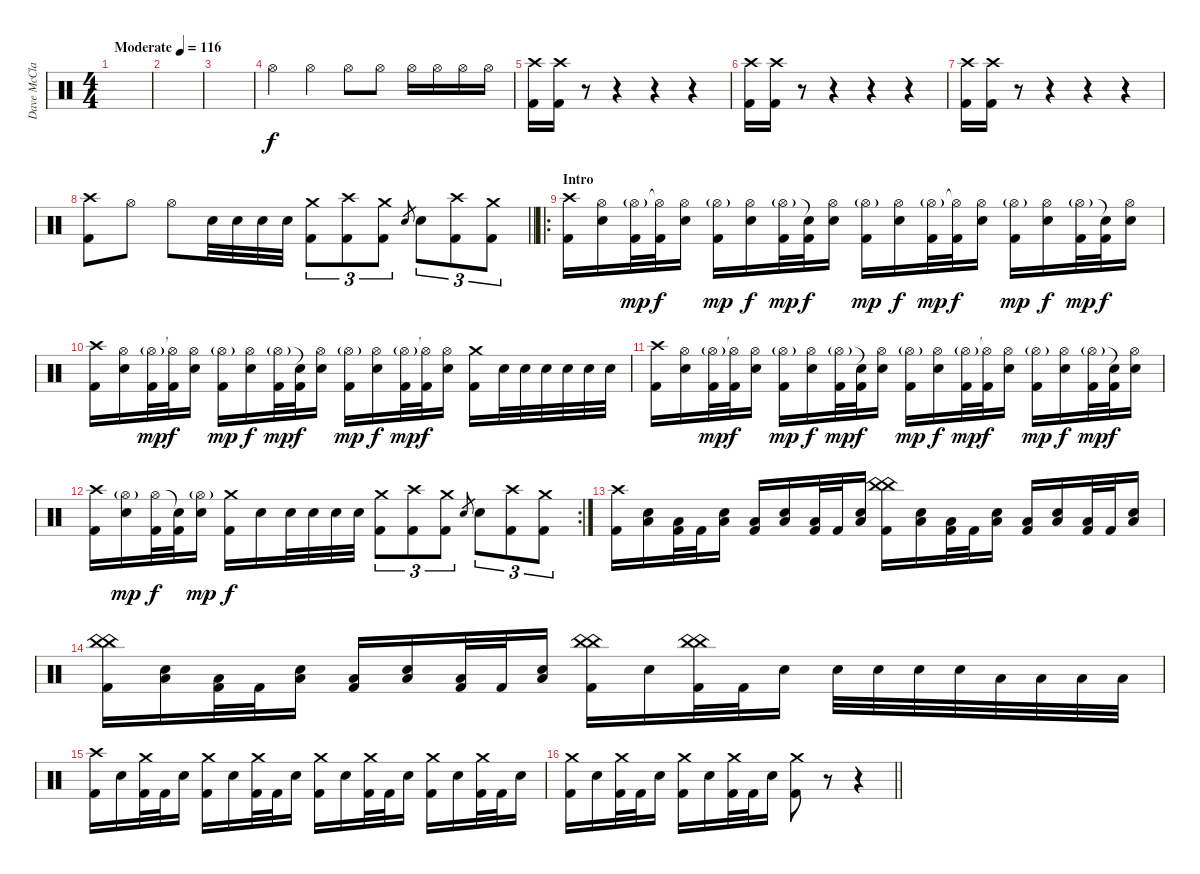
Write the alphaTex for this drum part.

\track ("Dave McClain (drums)" "Dave McCla") {instrument percussion}
\staff {score}
\articulation defaults
\ts (4 4)
\tempo (116 "Moderate")
\clef neutral
\ks c
|
|
|
"Hi-Hat (open)".4 "Hi-Hat (open)".4 "Hi-Hat (open)".8 "Hi-Hat (open)".8 "Hi-Hat (open)".16 "Hi-Hat (open)".16 "Hi-Hat (open)".16 "Hi-Hat (open)".16 |
("Crash high (hit)" "Kick (hit) 2").16 ("Crash high (hit)" "Kick (hit) 2").16 r.8 r.4 r.4 r.4 |
("Crash high (hit)" "Kick (hit) 2").16 ("Crash high (hit)" "Kick (hit) 2").16 r.8 r.4 r.4 r.4 |
("Crash high (hit)" "Kick (hit) 2").16 ("Crash high (hit)" "Kick (hit) 2").16 r.8 r.4 r.4 r.4 |
\barLineRight lightlight
("Crash high (hit)" "Kick (hit) 2").8 "Hi-Hat (open)".8 "Hi-Hat (open)".8 "Electric Snare (hit)".32 "Electric Snare (hit)".32 "Electric Snare (hit)".32 "Electric Snare (hit)".32 ("Crash medium (hit)" "Kick (hit) 2").8{tu (3 2)} ("Crash high (hit)" "Kick (hit) 2").8{tu (3 2)} ("Crash medium (hit)" "Kick (hit) 2").8{tu (3 2)} "Electric Snare (hit)".8{gr} "Electric Snare (hit)".8{tu (3 2)} ("Crash high (hit)" "Kick (hit) 2").8{tu (3 2)} ("Crash medium (hit)" "Kick (hit) 2").8{tu (3 2)} |
\ro
\section ("" "Intro")
("Crash high (hit)" "Kick (hit) 2").16 ("Hi-Hat (open)" "Electric Snare (hit)").16 ("Hi-Hat (open)"{g} "Kick (hit) 2").32{dy mp} ("Hi-Hat (open)"{t} "Kick (hit) 2").32{dy f} ("Hi-Hat (open)" "Electric Snare (hit)").16 ("Hi-Hat (open)"{g} "Kick (hit) 2").16{dy mp} ("Hi-Hat (open)" "Electric Snare (hit)").16{dy f} ("Hi-Hat (open)"{g} "Kick (hit) 2").32{dy mp} ("Snare (hit)"{t} "Kick (hit) 2").32{dy f} ("Hi-Hat (open)" "Electric Snare (hit)").16 ("Hi-Hat (open)"{g} "Kick (hit) 2").16{dy mp} ("Hi-Hat (open)" "Electric Snare (hit)").16{dy f} ("Hi-Hat (open)"{g} "Kick (hit) 2").32{dy mp} ("Hi-Hat (open)"{t} "Kick (hit) 2").32{dy f} ("Hi-Hat (open)" "Electric Snare (hit)").16 ("Hi-Hat (open)"{g} "Kick (hit) 2").16{dy mp} ("Hi-Hat (open)" "Electric Snare (hit)").16{dy f} ("Hi-Hat (open)"{g} "Kick (hit) 2").32{dy mp} ("Snare (hit)"{t} "Kick (hit) 2").32{dy f} ("Hi-Hat (open)" "Electric Snare (hit)").16 |
("Crash high (hit)" "Kick (hit) 2").16 ("Hi-Hat (open)" "Electric Snare (hit)").16 ("Hi-Hat (open)"{g} "Kick (hit) 2").32{dy mp} ("Hi-Hat (open)"{t} "Kick (hit) 2").32{dy f} ("Hi-Hat (open)" "Electric Snare (hit)").16 ("Hi-Hat (open)"{g} "Kick (hit) 2").16{dy mp} ("Hi-Hat (open)" "Electric Snare (hit)").16{dy f} ("Hi-Hat (open)"{g} "Kick (hit) 2").32{dy mp} ("Snare (hit)"{t} "Kick (hit) 2").32{dy f} ("Hi-Hat (open)" "Electric Snare (hit)").16 ("Hi-Hat (open)"{g} "Kick (hit) 2").16{dy mp} ("Hi-Hat (open)" "Electric Snare (hit)").16{dy f} ("Hi-Hat (open)"{g} "Kick (hit) 2").32{dy mp} ("Hi-Hat (open)"{t} "Kick (hit) 2").32{dy f} ("Hi-Hat (open)" "Electric Snare (hit)").16 ("Crash medium (hit)" "Kick (hit) 2").16 "Electric Snare (hit)".32 "Electric Snare (hit)".32 "Electric Snare (hit)".32 "Electric Snare (hit)".32 "Electric Snare (hit)".32 "Electric Snare (hit)".32 |
("Crash high (hit)" "Kick (hit) 2").16 ("Hi-Hat (open)" "Electric Snare (hit)").16 ("Hi-Hat (open)"{g} "Kick (hit) 2").32{dy mp} ("Hi-Hat (open)"{t} "Kick (hit) 2").32{dy f} ("Hi-Hat (open)" "Electric Snare (hit)").16 ("Hi-Hat (open)"{g} "Kick (hit) 2").16{dy mp} ("Hi-Hat (open)" "Electric Snare (hit)").16{dy f} ("Hi-Hat (open)"{g} "Kick (hit) 2").32{dy mp} ("Snare (hit)"{t} "Kick (hit) 2").32{dy f} ("Hi-Hat (open)" "Electric Snare (hit)").16 ("Hi-Hat (open)"{g} "Kick (hit) 2").16{dy mp} ("Hi-Hat (open)" "Electric Snare (hit)").16{dy f} ("Hi-Hat (open)"{g} "Kick (hit) 2").32{dy mp} ("Hi-Hat (open)"{t} "Kick (hit) 2").32{dy f} ("Hi-Hat (open)" "Electric Snare (hit)").16 ("Hi-Hat (open)"{g} "Kick (hit) 2").16{dy mp} ("Hi-Hat (open)" "Electric Snare (hit)").16{dy f} ("Hi-Hat (open)"{g} "Kick (hit) 2").32{dy mp} ("Snare (hit)"{t} "Kick (hit) 2").32{dy f} ("Hi-Hat (open)" "Electric Snare (hit)").16 |
\rc 2
("Crash high (hit)" "Kick (hit) 2").16 ("Hi-Hat (open)"{g} "Electric Snare (hit)").16{dy mp} ("Hi-Hat (open)" "Kick (hit) 2").32{dy f} ("Snare (hit)"{t} "Kick (hit) 2").32 ("Hi-Hat (open)"{g} "Electric Snare (hit)").16{dy mp} ("Crash medium (hit)" "Kick (hit) 2").16{dy f} "Electric Snare (hit)".16 "Electric Snare (hit)".32 "Electric Snare (hit)".32 "Electric Snare (hit)".32 "Electric Snare (hit)".32 ("Crash medium (hit)" "Kick (hit) 2").8{tu (3 2)} ("Crash high (hit)" "Kick (hit) 2").8{tu (3 2)} ("Crash medium (hit)" "Kick (hit) 2").8{tu (3 2)} "Electric Snare (hit)".8{gr} "Electric Snare (hit)".8{tu (3 2)} ("Crash high (hit)" "Kick (hit) 2").8{tu (3 2)} ("Crash medium (hit)" "Kick (hit) 2").8{tu (3 2)} |
("Crash high (hit)" "Kick (hit) 2").16 ("Electric Snare (hit)" "Low Floor Tom (hit)").16 ("Low Floor Tom (hit)" "Kick (hit) 2").32 "Kick (hit) 2".32 ("Electric Snare (hit)" "Low Floor Tom (hit)").16 ("Low Floor Tom (hit)" "Kick (hit) 2").16 ("Electric Snare (hit)" "Low Floor Tom (hit)").16 ("Low Floor Tom (hit)" "Kick (hit) 2").32 "Kick (hit) 2".32 ("Electric Snare (hit)" "Low Floor Tom (hit)").16 ("China (hit)" "China (hit)" "Kick (hit) 2").16 ("Electric Snare (hit)" "Low Floor Tom (hit)").16 ("Low Floor Tom (hit)" "Kick (hit) 2").32 "Kick (hit) 2".32 ("Electric Snare (hit)" "Low Floor Tom (hit)").16 ("Low Floor Tom (hit)" "Kick (hit) 2").16 ("Electric Snare (hit)" "Low Floor Tom (hit)").16 ("Low Floor Tom (hit)" "Kick (hit) 2").32 "Kick (hit) 2".32 ("Electric Snare (hit)" "Low Floor Tom (hit)").16 |
("China (hit)" "China (hit)" "Kick (hit) 2").16 ("Electric Snare (hit)" "Low Floor Tom (hit)").16 ("Low Floor Tom (hit)" "Kick (hit) 2").32 "Kick (hit) 2".32 ("Electric Snare (hit)" "Low Floor Tom (hit)").16 ("Low Floor Tom (hit)" "Kick (hit) 2").16 ("Electric Snare (hit)" "Low Floor Tom (hit)").16 ("Low Floor Tom (hit)" "Kick (hit) 2").32 "Kick (hit) 2".32 ("Electric Snare (hit)" "Low Floor Tom (hit)").16 ("China (hit)" "China (hit)" "Kick (hit) 2").16 "Electric Snare (hit)".16 ("China (hit)" "China (hit)" "Kick (hit) 2").32 "Kick (hit) 2".32 "Electric Snare (hit)".16 "Electric Snare (hit)".32 "Electric Snare (hit)".32 "Electric Snare (hit)".32 "Electric Snare (hit)".32 "Low Tom (hit)".32 "Low Tom (hit)".32 "Low Tom (hit)".32 "Low Tom (hit)".32 |
("Crash high (hit)" "Kick (hit) 2").16 "Electric Snare (hit)".16 ("Crash medium (hit)" "Kick (hit) 2").32 "Kick (hit) 2".32 "Electric Snare (hit)".16 ("Crash medium (hit)" "Kick (hit) 2").16 "Electric Snare (hit)".16 ("Crash medium (hit)" "Kick (hit) 2").32 "Kick (hit) 2".32 "Electric Snare (hit)".16 ("Crash medium (hit)" "Kick (hit) 2").16 "Electric Snare (hit)".16 ("Crash medium (hit)" "Kick (hit) 2").32 "Kick (hit) 2".32 "Electric Snare (hit)".16 ("Crash medium (hit)" "Kick (hit) 2").16 "Electric Snare (hit)".16 ("Crash medium (hit)" "Kick (hit) 2").32 "Kick (hit) 2".32 "Electric Snare (hit)".16 |
\barLineRight lightlight
("Crash medium (hit)" "Kick (hit) 2").16 "Electric Snare (hit)".16 ("Crash medium (hit)" "Kick (hit) 2").32 "Kick (hit) 2".32 "Electric Snare (hit)".16 ("Crash medium (hit)" "Kick (hit) 2").16 "Electric Snare (hit)".16 ("Crash medium (hit)" "Kick (hit) 2").32 "Kick (hit) 2".32 "Electric Snare (hit)".16 ("Crash medium (hit)" "Kick (hit) 2").8 r.8 r.4
